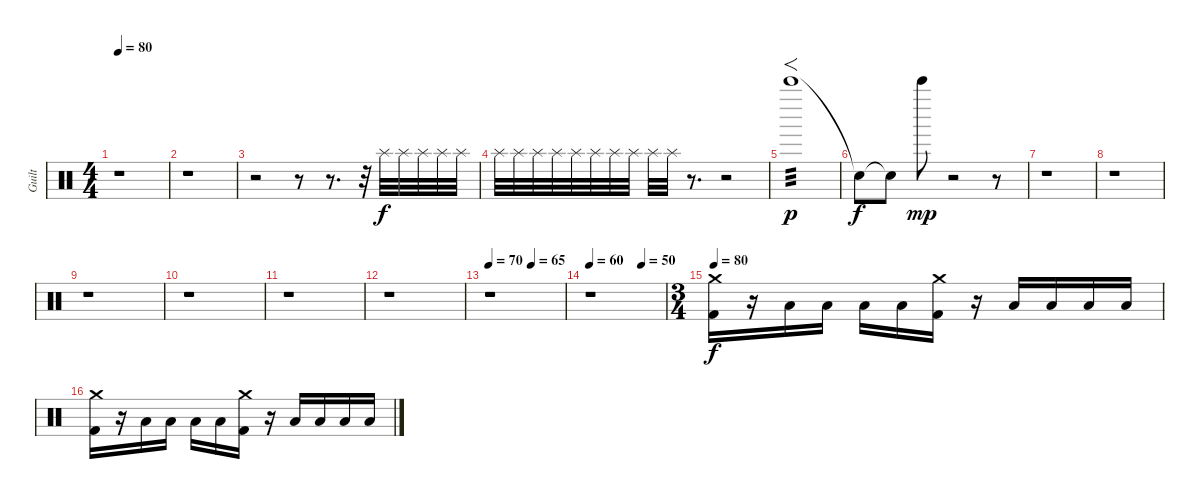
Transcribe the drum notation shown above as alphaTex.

\track ("Guilt" "Guilt") {instrument percussion}
\staff {score}
\articulation defaults
\ts (4 4)
\tempo 80
\clef neutral
\ks c
r.1{dy f} |
r.1 |
r.2 r.8 r.8{d} r.32 "Splash (hit)".32{volume 0} "Splash (hit)".32{volume 7} "Splash (hit)".32 "Splash (hit)".32 "Splash (hit)".32 |
"Splash (hit)".32 "Splash (hit)".32 "Splash (hit)".32 "Splash (hit)".32 "Splash (hit)".32 "Splash (hit)".32 "Splash (hit)".32 "Splash (hit)".32 "Splash (hit)".32 "Splash (hit)".32 r.8{d} r.2{volume 13} |
"Bell Tree (hit)".1{f tp 3 dy p} |
"Snare (hit)"{t}.8{dy f} "Snare (hit)"{t}.8 "Bell Tree (hit)".8{dy mp} r.2 r.8 |
r.1 |
r.1 |
r.1 |
r.1 |
r.1 |
r.1 |
\tempo 70
\tempo (65 0.5625)
r.1 |
\tempo 60
\tempo (50 0.6875)
r.1 |
\ts (3 4)
\tempo 80
("Crash medium (hit)" "Kick (hit) 2").16{dy f volume 3} r.16 "Low Tom (hit)".16 "Low Tom (hit)".16 "Low Tom (hit)".16 "Low Tom (hit)".16 ("Crash medium (hit)" "Kick (hit) 2").16{volume 4} r.16 "Low Tom (hit)".16 "Low Tom (hit)".16 "Low Tom (hit)".16 "Low Tom (hit)".16 |
("Crash medium (hit)" "Kick (hit) 2").16{volume 6} r.16 "Low Tom (hit)".16 "Low Tom (hit)".16 "Low Tom (hit)".16 "Low Tom (hit)".16 ("Crash medium (hit)" "Kick (hit) 2").16{volume 8} r.16 "Low Tom (hit)".16 "Low Tom (hit)".16 "Low Tom (hit)".16 "Low Tom (hit)".16
